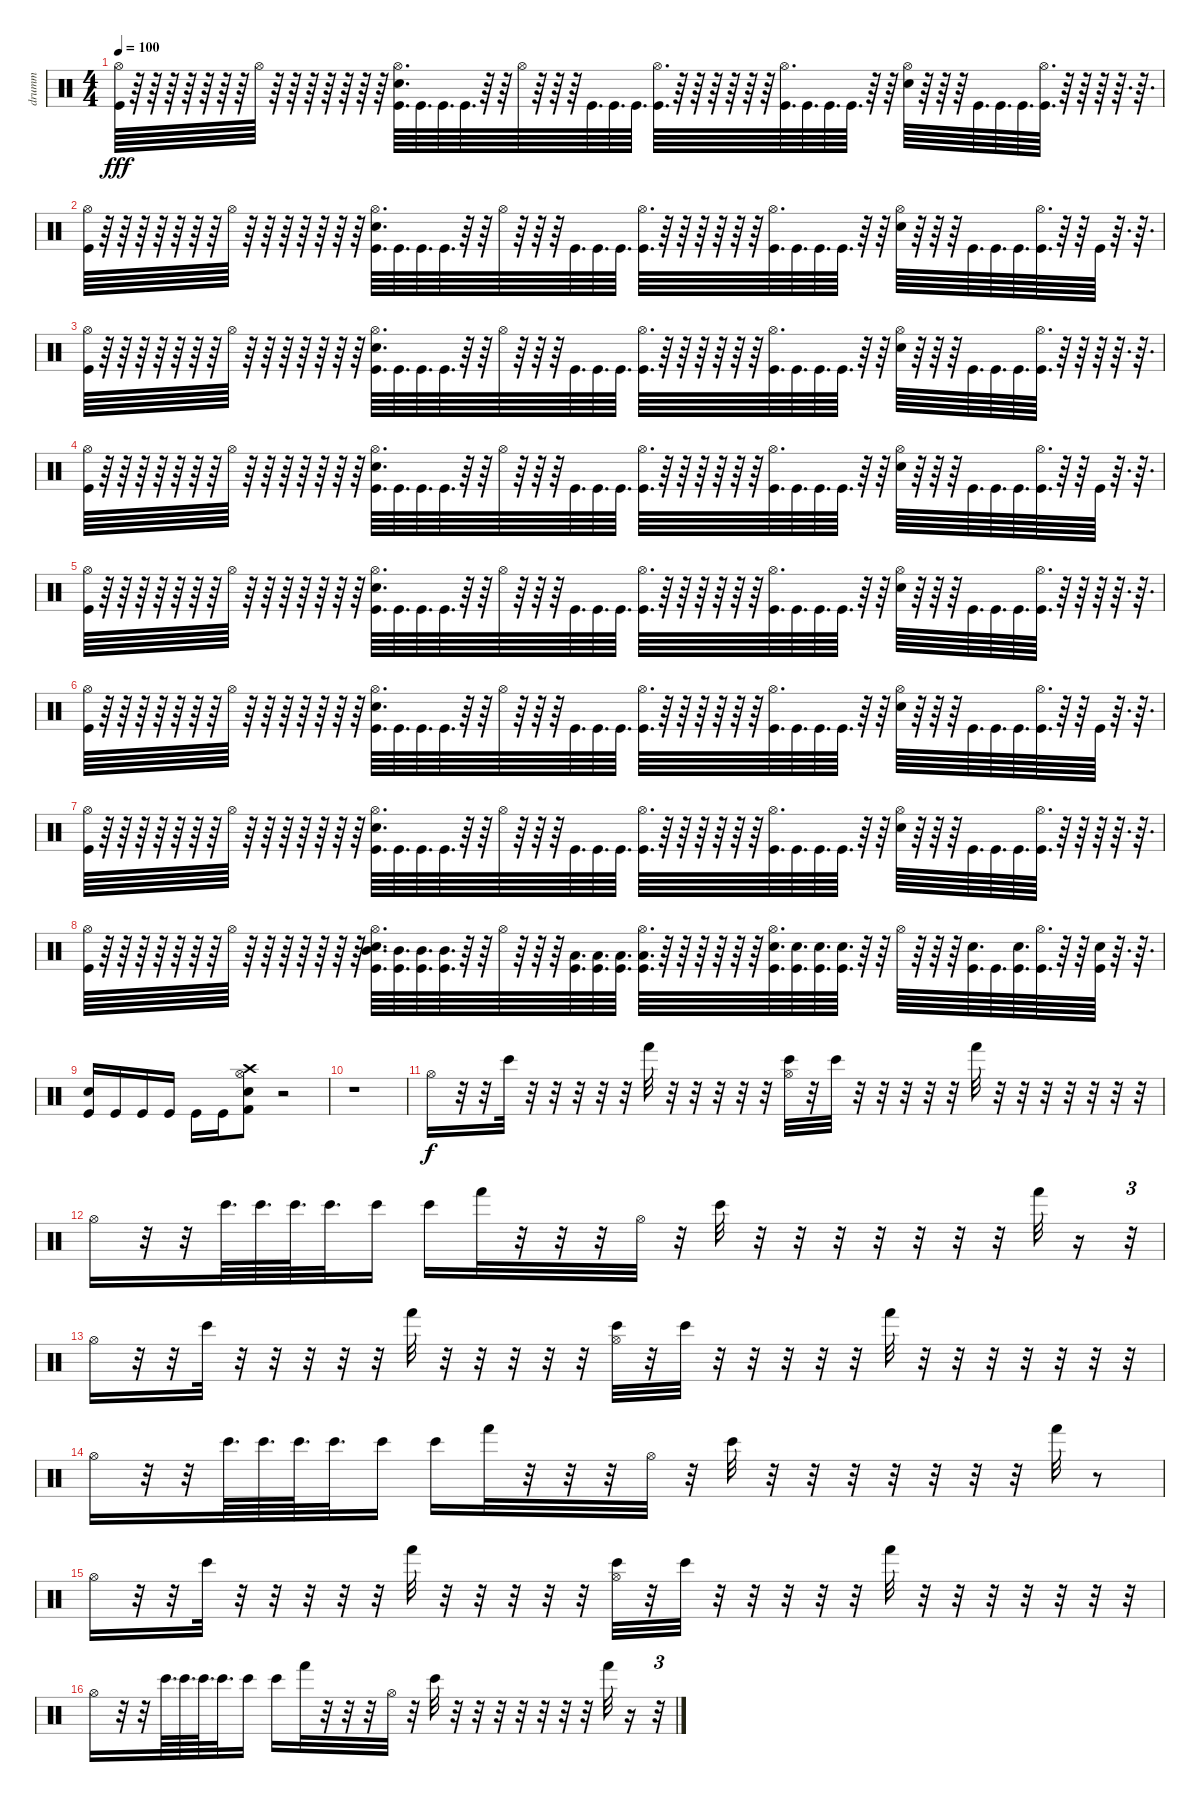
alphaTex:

\track ("drumm" "drumm") {instrument percussion}
\staff {score}
\articulation defaults
\ts (4 4)
\tempo 100
\clef neutral
\ks c
("Hi-Hat (open)" "Kick (hit)").64{dy fff} r.64 r.64 r.64 r.64 r.64 r.64 r.64 "Hi-Hat (open)".64 r.64 r.64 r.64 r.64 r.64 r.64 r.64 ("Hi-Hat (open)" "Electric Snare (hit)" "Kick (hit)").64{d} "Kick (hit)".64{d} "Kick (hit)".64{d} "Kick (hit)".64{d} r.64 r.64 "Hi-Hat (open)".64 r.64 r.64 r.64 "Kick (hit)".64{d} "Kick (hit)".64{d} "Kick (hit)".64{d} ("Hi-Hat (open)" "Kick (hit)").64{d} r.64 r.64 r.64 r.64 r.64 r.64 ("Hi-Hat (open)" "Kick (hit)").64{d} "Kick (hit)".64{d} "Kick (hit)".64{d} "Kick (hit)".64{d} r.64 r.64 ("Hi-Hat (open)" "Electric Snare (hit)").64 r.64 r.64 r.64 "Kick (hit)".64{d} "Kick (hit)".64{d} "Kick (hit)".64{d} ("Hi-Hat (open)" "Kick (hit)").64{d} r.64 r.64 r.64 r.64{d} r.64{d} |
("Hi-Hat (open)" "Kick (hit)").64 r.64 r.64 r.64 r.64 r.64 r.64 r.64 "Hi-Hat (open)".64 r.64 r.64 r.64 r.64 r.64 r.64 r.64 ("Hi-Hat (open)" "Electric Snare (hit)" "Kick (hit)").64{d} "Kick (hit)".64{d} "Kick (hit)".64{d} "Kick (hit)".64{d} r.64 r.64 "Hi-Hat (open)".64 r.64 r.64 r.64 "Kick (hit)".64{d} "Kick (hit)".64{d} "Kick (hit)".64{d} ("Hi-Hat (open)" "Kick (hit)").64{d} r.64 r.64 r.64 r.64 r.64 r.64 ("Hi-Hat (open)" "Kick (hit)").64{d} "Kick (hit)".64{d} "Kick (hit)".64{d} "Kick (hit)".64{d} r.64 r.64 ("Hi-Hat (open)" "Electric Snare (hit)").64 r.64 r.64 r.64 "Kick (hit)".64{d} "Kick (hit)".64{d} "Kick (hit)".64{d} ("Hi-Hat (open)" "Kick (hit)").64{d} r.64 r.64 "Kick (hit)".64 r.64{d} r.64{d} |
("Hi-Hat (open)" "Kick (hit)").64 r.64 r.64 r.64 r.64 r.64 r.64 r.64 "Hi-Hat (open)".64 r.64 r.64 r.64 r.64 r.64 r.64 r.64 ("Hi-Hat (open)" "Electric Snare (hit)" "Kick (hit)").64{d} "Kick (hit)".64{d} "Kick (hit)".64{d} "Kick (hit)".64{d} r.64 r.64 "Hi-Hat (open)".64 r.64 r.64 r.64 "Kick (hit)".64{d} "Kick (hit)".64{d} "Kick (hit)".64{d} ("Hi-Hat (open)" "Kick (hit)").64{d} r.64 r.64 r.64 r.64 r.64 r.64 ("Hi-Hat (open)" "Kick (hit)").64{d} "Kick (hit)".64{d} "Kick (hit)".64{d} "Kick (hit)".64{d} r.64 r.64 ("Hi-Hat (open)" "Electric Snare (hit)").64 r.64 r.64 r.64 "Kick (hit)".64{d} "Kick (hit)".64{d} "Kick (hit)".64{d} ("Hi-Hat (open)" "Kick (hit)").64{d} r.64 r.64 r.64 r.64{d} r.64{d} |
("Hi-Hat (open)" "Kick (hit)").64 r.64 r.64 r.64 r.64 r.64 r.64 r.64 "Hi-Hat (open)".64 r.64 r.64 r.64 r.64 r.64 r.64 r.64 ("Hi-Hat (open)" "Electric Snare (hit)" "Kick (hit)").64{d} "Kick (hit)".64{d} "Kick (hit)".64{d} "Kick (hit)".64{d} r.64 r.64 "Hi-Hat (open)".64 r.64 r.64 r.64 "Kick (hit)".64{d} "Kick (hit)".64{d} "Kick (hit)".64{d} ("Hi-Hat (open)" "Kick (hit)").64{d} r.64 r.64 r.64 r.64 r.64 r.64 ("Hi-Hat (open)" "Kick (hit)").64{d} "Kick (hit)".64{d} "Kick (hit)".64{d} "Kick (hit)".64{d} r.64 r.64 ("Hi-Hat (open)" "Electric Snare (hit)").64 r.64 r.64 r.64 "Kick (hit)".64{d} "Kick (hit)".64{d} "Kick (hit)".64{d} ("Hi-Hat (open)" "Kick (hit)").64{d} r.64 r.64 "Kick (hit)".64 r.64{d} r.64{d} |
("Hi-Hat (open)" "Kick (hit)").64 r.64 r.64 r.64 r.64 r.64 r.64 r.64 "Hi-Hat (open)".64 r.64 r.64 r.64 r.64 r.64 r.64 r.64 ("Hi-Hat (open)" "Electric Snare (hit)" "Kick (hit)").64{d} "Kick (hit)".64{d} "Kick (hit)".64{d} "Kick (hit)".64{d} r.64 r.64 "Hi-Hat (open)".64 r.64 r.64 r.64 "Kick (hit)".64{d} "Kick (hit)".64{d} "Kick (hit)".64{d} ("Hi-Hat (open)" "Kick (hit)").64{d} r.64 r.64 r.64 r.64 r.64 r.64 ("Hi-Hat (open)" "Kick (hit)").64{d} "Kick (hit)".64{d} "Kick (hit)".64{d} "Kick (hit)".64{d} r.64 r.64 ("Hi-Hat (open)" "Electric Snare (hit)").64 r.64 r.64 r.64 "Kick (hit)".64{d} "Kick (hit)".64{d} "Kick (hit)".64{d} ("Hi-Hat (open)" "Kick (hit)").64{d} r.64 r.64 r.64 r.64{d} r.64{d} |
("Hi-Hat (open)" "Kick (hit)").64 r.64 r.64 r.64 r.64 r.64 r.64 r.64 "Hi-Hat (open)".64 r.64 r.64 r.64 r.64 r.64 r.64 r.64 ("Hi-Hat (open)" "Electric Snare (hit)" "Kick (hit)").64{d} "Kick (hit)".64{d} "Kick (hit)".64{d} "Kick (hit)".64{d} r.64 r.64 "Hi-Hat (open)".64 r.64 r.64 r.64 "Kick (hit)".64{d} "Kick (hit)".64{d} "Kick (hit)".64{d} ("Hi-Hat (open)" "Kick (hit)").64{d} r.64 r.64 r.64 r.64 r.64 r.64 ("Hi-Hat (open)" "Kick (hit)").64{d} "Kick (hit)".64{d} "Kick (hit)".64{d} "Kick (hit)".64{d} r.64 r.64 ("Hi-Hat (open)" "Electric Snare (hit)").64 r.64 r.64 r.64 "Kick (hit)".64{d} "Kick (hit)".64{d} "Kick (hit)".64{d} ("Hi-Hat (open)" "Kick (hit)").64{d} r.64 r.64 "Kick (hit)".64 r.64{d} r.64{d} |
("Hi-Hat (open)" "Kick (hit)").64 r.64 r.64 r.64 r.64 r.64 r.64 r.64 "Hi-Hat (open)".64 r.64 r.64 r.64 r.64 r.64 r.64 r.64 ("Hi-Hat (open)" "Electric Snare (hit)" "Kick (hit)").64{d} "Kick (hit)".64{d} "Kick (hit)".64{d} "Kick (hit)".64{d} r.64 r.64 "Hi-Hat (open)".64 r.64 r.64 r.64 "Kick (hit)".64{d} "Kick (hit)".64{d} "Kick (hit)".64{d} ("Hi-Hat (open)" "Kick (hit)").64{d} r.64 r.64 r.64 r.64 r.64 r.64 ("Hi-Hat (open)" "Kick (hit)").64{d} "Kick (hit)".64{d} "Kick (hit)".64{d} "Kick (hit)".64{d} r.64 r.64 ("Hi-Hat (open)" "Electric Snare (hit)").64 r.64 r.64 r.64 "Kick (hit)".64{d} "Kick (hit)".64{d} "Kick (hit)".64{d} ("Hi-Hat (open)" "Kick (hit)").64{d} r.64 r.64 r.64 r.64{d} r.64{d} |
("Hi-Hat (open)" "Kick (hit)").64 r.64 r.64 r.64 r.64 r.64 r.64 r.64 "Hi-Hat (open)".64 r.64 r.64 r.64 r.64 r.64 r.64 r.64 ("Hi-Hat (open)" "Electric Snare (hit)" "Mid Tom (hit)" "Kick (hit)").64{d} ("Mid Tom (hit)" "Kick (hit)").64{d} ("Mid Tom (hit)" "Kick (hit)").64{d} ("Mid Tom (hit)" "Kick (hit)").64{d} r.64 r.64 "Hi-Hat (open)".64 r.64 r.64 r.64 ("Low Tom (hit)" "Kick (hit)").64{d} ("Low Tom (hit)" "Kick (hit)").64{d} ("Low Tom (hit)" "Kick (hit)").64{d} ("Hi-Hat (open)" "Low Tom (hit)" "Kick (hit)").64{d} r.64 r.64 r.64 r.64 r.64 r.64 ("Hi-Hat (open)" "Electric Snare (hit)" "Kick (hit)").64{d} ("Electric Snare (hit)" "Kick (hit)").64{d} ("Electric Snare (hit)" "Kick (hit)").64{d} ("Electric Snare (hit)" "Kick (hit)").64{d} r.64 r.64 "Hi-Hat (open)".64 r.64 r.64 r.64 ("Snare (hit) 2" "Kick (hit)").64{d} "Kick (hit)".64{d} ("Snare (hit) 2" "Kick (hit)").64{d} ("Hi-Hat (open)" "Kick (hit)").64{d} r.64 r.64 ("Snare (hit) 2" "Kick (hit)").64 r.64{d} r.64{d} |
("Electric Snare (hit)" "Kick (hit)").16 "Kick (hit)".16 "Kick (hit)".16 "Kick (hit)".16 "Kick (hit)".16 "Kick (hit)".16 ("Hi-Hat (open)" "Crash high (hit)" "Electric Snare (hit)" "Kick (hit) 2").8 r.2 |
r.1 |
"Hi-Hat (open)".16{dy f} r.32 r.32 "Bongo High (hit)".32 r.32 r.32 r.32 r.32 r.32 "Hand (hit)".32 r.32 r.32 r.32 r.32 r.32 ("Hi-Hat (open)" "Bongo High (hit)").32 r.32 "Bongo High (hit)".32 r.32 r.32 r.32 r.32 r.32 "Hand (hit)".32 r.32 r.32 r.32 r.32 r.32 r.32 r.32 |
"Hi-Hat (open)".16 r.32 r.32 "Bongo High (hit)".64{d} "Bongo High (hit)".64{d} "Bongo High (hit)".64{d} "Bongo High (hit)".32{d} "Bongo High (hit)".16 "Bongo High (hit)".16 "Hand (hit)".32 r.32 r.32 r.32 "Hi-Hat (open)".32 r.32 "Bongo High (hit)".32 r.32 r.32 r.32 r.32 r.32 r.32 r.32 "Hand (hit)".32 r.16 r.32{tu (3 2)} |
"Hi-Hat (open)".16 r.32 r.32 "Bongo High (hit)".32 r.32 r.32 r.32 r.32 r.32 "Hand (hit)".32 r.32 r.32 r.32 r.32 r.32 ("Hi-Hat (open)" "Bongo High (hit)").32 r.32 "Bongo High (hit)".32 r.32 r.32 r.32 r.32 r.32 "Hand (hit)".32 r.32 r.32 r.32 r.32 r.32 r.32 r.32 |
"Hi-Hat (open)".16 r.32 r.32 "Bongo High (hit)".64{d} "Bongo High (hit)".64{d} "Bongo High (hit)".64{d} "Bongo High (hit)".32{d} "Bongo High (hit)".16 "Bongo High (hit)".16 "Hand (hit)".32 r.32 r.32 r.32 "Hi-Hat (open)".32 r.32 "Bongo High (hit)".32 r.32 r.32 r.32 r.32 r.32 r.32 r.32 "Hand (hit)".32 r.8 |
"Hi-Hat (open)".16 r.32 r.32 "Bongo High (hit)".32 r.32 r.32 r.32 r.32 r.32 "Hand (hit)".32 r.32 r.32 r.32 r.32 r.32 ("Hi-Hat (open)" "Bongo High (hit)").32 r.32 "Bongo High (hit)".32 r.32 r.32 r.32 r.32 r.32 "Hand (hit)".32 r.32 r.32 r.32 r.32 r.32 r.32 r.32 |
"Hi-Hat (open)".16 r.32 r.32 "Bongo High (hit)".64{d} "Bongo High (hit)".64{d} "Bongo High (hit)".64{d} "Bongo High (hit)".32{d} "Bongo High (hit)".16 "Bongo High (hit)".16 "Hand (hit)".32 r.32 r.32 r.32 "Hi-Hat (open)".32 r.32 "Bongo High (hit)".32 r.32 r.32 r.32 r.32 r.32 r.32 r.32 "Hand (hit)".32 r.16 r.32{tu (3 2)}
